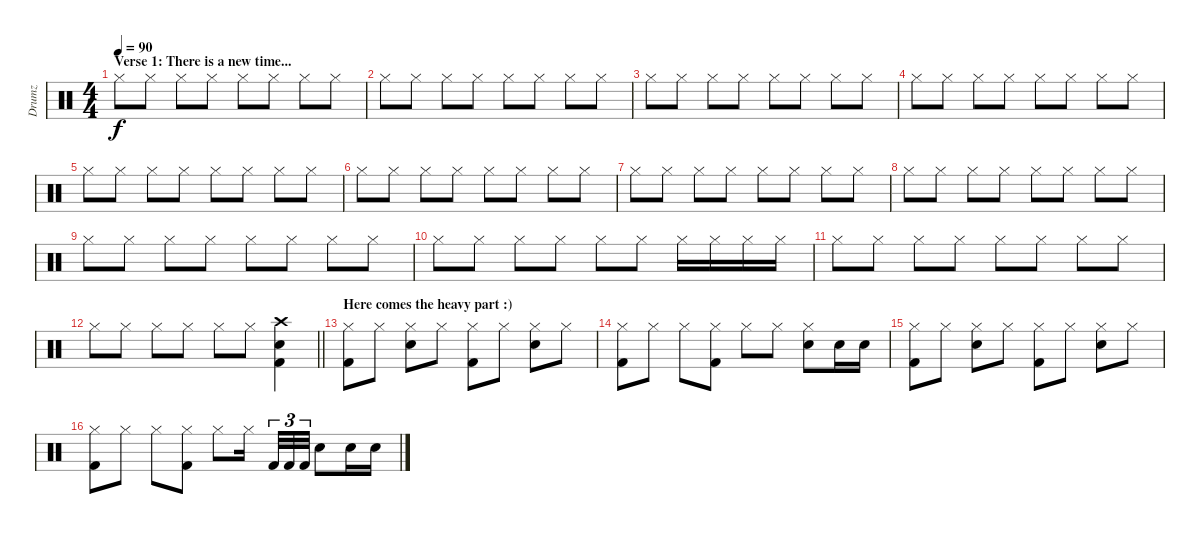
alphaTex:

\track ("Drumz" "Drumz") {instrument percussion}
\staff {score}
\articulation defaults
\ts (4 4)
\section ("" "Verse 1: There is a new time...")
\tempo 90
\clef neutral
\ks c "Hi-Hat (closed)".8{dy f} "Hi-Hat (closed)".8 "Hi-Hat (closed)".8 "Hi-Hat (closed)".8 "Hi-Hat (closed)".8 "Hi-Hat (closed)".8 "Hi-Hat (closed)".8 "Hi-Hat (closed)".8
|
"Hi-Hat (closed)".8 "Hi-Hat (closed)".8 "Hi-Hat (closed)".8 "Hi-Hat (closed)".8 "Hi-Hat (closed)".8 "Hi-Hat (closed)".8 "Hi-Hat (closed)".8 "Hi-Hat (closed)".8 |
"Hi-Hat (closed)".8 "Hi-Hat (closed)".8 "Hi-Hat (closed)".8 "Hi-Hat (closed)".8 "Hi-Hat (closed)".8 "Hi-Hat (closed)".8 "Hi-Hat (closed)".8 "Hi-Hat (closed)".8 |
"Hi-Hat (closed)".8 "Hi-Hat (closed)".8 "Hi-Hat (closed)".8 "Hi-Hat (closed)".8 "Hi-Hat (closed)".8 "Hi-Hat (closed)".8 "Hi-Hat (closed)".8 "Hi-Hat (closed)".8 |
"Hi-Hat (closed)".8 "Hi-Hat (closed)".8 "Hi-Hat (closed)".8 "Hi-Hat (closed)".8 "Hi-Hat (closed)".8 "Hi-Hat (closed)".8 "Hi-Hat (closed)".8 "Hi-Hat (closed)".8 |
"Hi-Hat (closed)".8 "Hi-Hat (closed)".8 "Hi-Hat (closed)".8 "Hi-Hat (closed)".8 "Hi-Hat (closed)".8 "Hi-Hat (closed)".8 "Hi-Hat (closed)".8 "Hi-Hat (closed)".8 |
"Hi-Hat (closed)".8 "Hi-Hat (closed)".8 "Hi-Hat (closed)".8 "Hi-Hat (closed)".8 "Hi-Hat (closed)".8 "Hi-Hat (closed)".8 "Hi-Hat (closed)".8 "Hi-Hat (closed)".8 |
"Hi-Hat (closed)".8 "Hi-Hat (closed)".8 "Hi-Hat (closed)".8 "Hi-Hat (closed)".8 "Hi-Hat (closed)".8 "Hi-Hat (closed)".8 "Hi-Hat (closed)".8 "Hi-Hat (closed)".8 |
"Hi-Hat (closed)".8 "Hi-Hat (closed)".8 "Hi-Hat (closed)".8 "Hi-Hat (closed)".8 "Hi-Hat (closed)".8 "Hi-Hat (closed)".8 "Hi-Hat (closed)".8 "Hi-Hat (closed)".8 |
"Hi-Hat (closed)".8 "Hi-Hat (closed)".8 "Hi-Hat (closed)".8 "Hi-Hat (closed)".8 "Hi-Hat (closed)".8 "Hi-Hat (closed)".8 "Hi-Hat (closed)".16 "Hi-Hat (closed)".16 "Hi-Hat (closed)".16 "Hi-Hat (closed)".16 |
"Hi-Hat (closed)".8 "Hi-Hat (closed)".8 "Hi-Hat (closed)".8 "Hi-Hat (closed)".8 "Hi-Hat (closed)".8 "Hi-Hat (closed)".8 "Hi-Hat (closed)".8 "Hi-Hat (closed)".8 |
\barLineRight lightlight "Hi-Hat (closed)".8 "Hi-Hat (closed)".8 "Hi-Hat (closed)".8 "Hi-Hat (closed)".8 "Hi-Hat (closed)".8 "Hi-Hat (closed)".8
("Crash high (hit)" "Kick (hit) 2" "Snare (hit) 2").4 |
\section ("" "Here comes the heavy part :)")
("Hi-Hat (closed)" "Kick (hit) 2").8 "Hi-Hat (closed)".8 ("Hi-Hat (closed)" "Snare (hit) 2").8 "Hi-Hat (closed)".8 ("Hi-Hat (closed)" "Kick (hit) 2").8 "Hi-Hat (closed)".8 ("Hi-Hat (closed)" "Snare (hit) 2").8 "Hi-Hat (closed)".8 |
("Hi-Hat (closed)" "Kick (hit) 2").8 "Hi-Hat (closed)".8 "Hi-Hat (closed)".8 ("Hi-Hat (closed)" "Kick (hit) 2").8 "Hi-Hat (closed)".8 "Hi-Hat (closed)".8 ("Hi-Hat (closed)" "Snare (hit) 2").8 "Snare (hit) 2".16 "Snare (hit) 2".16 |
("Hi-Hat (closed)" "Kick (hit) 2").8 "Hi-Hat (closed)".8 ("Hi-Hat (closed)" "Snare (hit) 2").8 "Hi-Hat (closed)".8 ("Hi-Hat (closed)" "Kick (hit) 2").8 "Hi-Hat (closed)".8 ("Hi-Hat (closed)" "Snare (hit) 2").8 "Hi-Hat (closed)".8 |
("Hi-Hat (closed)" "Kick (hit) 2").8 "Hi-Hat (closed)".8 "Hi-Hat (closed)".8 ("Hi-Hat (closed)" "Kick (hit) 2").8 "Hi-Hat (closed)".8 "Hi-Hat (closed)".16{beam splitsecondary} "Kick (hit) 2".32{tu (3 2)} "Kick (hit) 2".32{tu (3 2)} "Kick (hit) 2".32{tu (3 2)} "Snare (hit) 2".8 "Snare (hit) 2".16 "Snare (hit) 2".16
